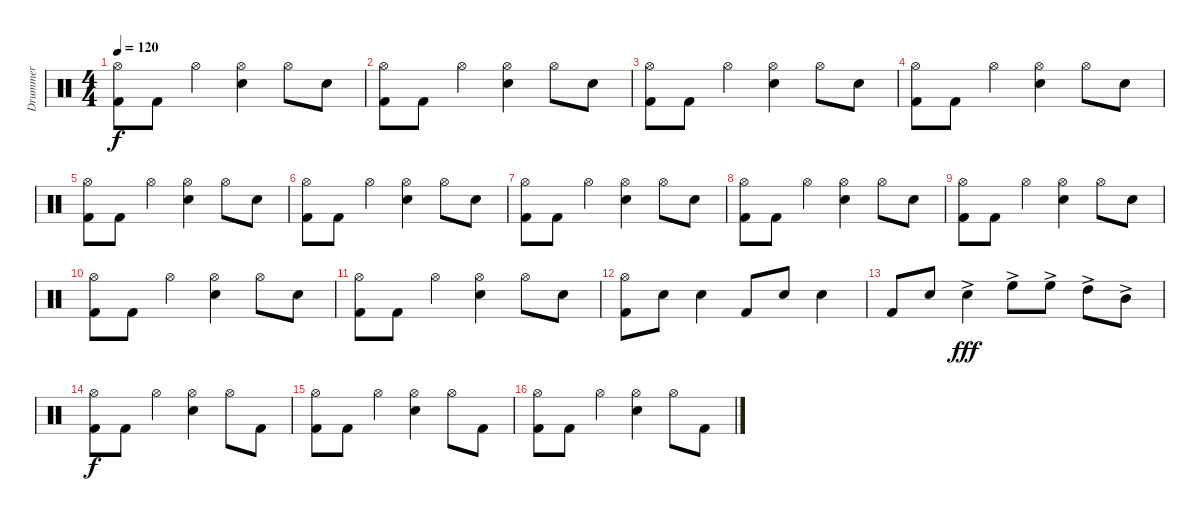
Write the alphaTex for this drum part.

\track ("Drummer" "Drummer") {instrument percussion}
\staff {score}
\articulation defaults
\ts (4 4)
\tempo 120
\clef neutral
\ks c
("Hi-Hat (open)" "Kick (hit) 2").8{dy f} "Kick (hit) 2".8 "Hi-Hat (open)".4 ("Hi-Hat (open)" "Snare (hit) 2").4 "Hi-Hat (open)".8 "Snare (hit) 2".8 |
("Hi-Hat (open)" "Kick (hit) 2").8 "Kick (hit) 2".8 "Hi-Hat (open)".4 ("Hi-Hat (open)" "Snare (hit) 2").4 "Hi-Hat (open)".8 "Snare (hit) 2".8 |
("Hi-Hat (open)" "Kick (hit) 2").8 "Kick (hit) 2".8 "Hi-Hat (open)".4 ("Hi-Hat (open)" "Snare (hit) 2").4 "Hi-Hat (open)".8 "Snare (hit) 2".8 |
("Hi-Hat (open)" "Kick (hit) 2").8 "Kick (hit) 2".8 "Hi-Hat (open)".4 ("Hi-Hat (open)" "Snare (hit) 2").4 "Hi-Hat (open)".8 "Snare (hit) 2".8 |
("Hi-Hat (open)" "Kick (hit) 2").8 "Kick (hit) 2".8 "Hi-Hat (open)".4 ("Hi-Hat (open)" "Snare (hit) 2").4 "Hi-Hat (open)".8 "Snare (hit) 2".8 |
("Hi-Hat (open)" "Kick (hit) 2").8 "Kick (hit) 2".8 "Hi-Hat (open)".4 ("Hi-Hat (open)" "Snare (hit) 2").4 "Hi-Hat (open)".8 "Snare (hit) 2".8 |
("Hi-Hat (open)" "Kick (hit) 2").8 "Kick (hit) 2".8 "Hi-Hat (open)".4 ("Hi-Hat (open)" "Snare (hit) 2").4 "Hi-Hat (open)".8 "Snare (hit) 2".8 |
("Hi-Hat (open)" "Kick (hit) 2").8 "Kick (hit) 2".8 "Hi-Hat (open)".4 ("Hi-Hat (open)" "Snare (hit) 2").4 "Hi-Hat (open)".8 "Snare (hit) 2".8 |
("Hi-Hat (open)" "Kick (hit) 2").8 "Kick (hit) 2".8 "Hi-Hat (open)".4 ("Hi-Hat (open)" "Snare (hit) 2").4 "Hi-Hat (open)".8 "Snare (hit) 2".8 |
("Hi-Hat (open)" "Kick (hit) 2").8 "Kick (hit) 2".8 "Hi-Hat (open)".4 ("Hi-Hat (open)" "Snare (hit) 2").4 "Hi-Hat (open)".8 "Snare (hit) 2".8 |
("Hi-Hat (open)" "Kick (hit) 2").8 "Kick (hit) 2".8 "Hi-Hat (open)".4 ("Hi-Hat (open)" "Snare (hit) 2").4 "Hi-Hat (open)".8 "Snare (hit) 2".8 |
("Hi-Hat (open)" "Kick (hit) 2").8 "Snare (hit) 2".8 "Snare (hit) 2".4 "Kick (hit) 2".8 "Snare (hit) 2".8 "Snare (hit) 2".4 |
"Kick (hit) 2".8 "Snare (hit) 2".8 "Snare (hit) 2"{ac}.4{dy fff} "High Floor Tom (hit)"{ac}.8 "High Floor Tom (hit)"{ac}.8 "High Tom (hit)"{ac}.8 "Mid Tom (hit)"{ac}.8 |
("Hi-Hat (open)" "Kick (hit) 2").8{dy f} "Kick (hit) 2".8 "Hi-Hat (open)".4 ("Hi-Hat (open)" "Snare (hit) 2").4 "Hi-Hat (open)".8 "Kick (hit) 2".8 |
("Hi-Hat (open)" "Kick (hit) 2").8 "Kick (hit) 2".8 "Hi-Hat (open)".4 ("Hi-Hat (open)" "Snare (hit) 2").4 "Hi-Hat (open)".8 "Kick (hit) 2".8 |
("Hi-Hat (open)" "Kick (hit) 2").8 "Kick (hit) 2".8 "Hi-Hat (open)".4 ("Hi-Hat (open)" "Snare (hit) 2").4 "Hi-Hat (open)".8 "Kick (hit) 2".8
